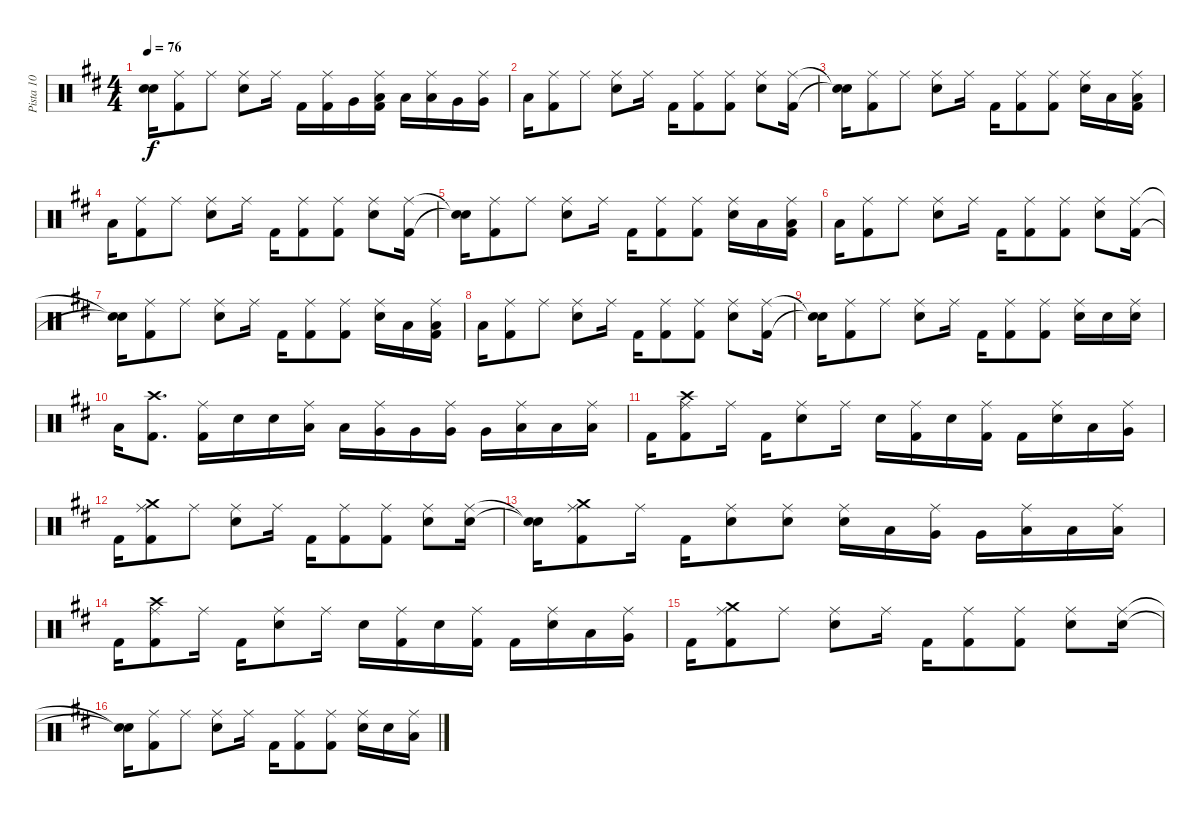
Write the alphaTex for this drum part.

\track ("Pista 10" "Pista 10") {instrument percussion}
\staff {score}
\articulation defaults
\ts (4 4)
\tempo 76
\clef neutral
\ks d
("Snare (hit)"{t} "Snare (hit)"{t}).16{dy f} ("Kick (hit) 2" "Ride (middle)").8 "Ride (middle)".8 ("Snare (hit) 2" "Ride (middle)").8 "Ride (middle)".16 "Kick (hit) 2".16 ("Kick (hit) 2" "Ride (middle)").16 "Very Low Tom (hit)".16 ("Kick (hit) 2" "Ride (middle)" "Low Tom (hit)").16 "Low Tom (hit)".16 ("Ride (middle)" "Low Tom (hit)").16 "Very Low Tom (hit)".16 ("Very Low Tom (hit)" "Ride (middle)").16 |
"Low Floor Tom (hit)".16 ("Kick (hit) 2" "Ride (middle)").8 "Ride (middle)".8 ("Snare (hit) 2" "Ride (middle)").8 "Ride (middle)".16 "Kick (hit) 2".16 ("Kick (hit) 2" "Ride (middle)").8 ("Kick (hit) 2" "Ride (middle)").8 ("Snare (hit) 2" "Ride (middle)").8 ("Kick (hit) 2" "Ride (middle)").16 |
("Snare (hit)"{t} "Snare (hit)"{t}).16 ("Kick (hit) 2" "Ride (middle)").8 "Ride (middle)".8 ("Snare (hit) 2" "Ride (middle)").8 "Ride (middle)".16 "Kick (hit) 2".16 ("Kick (hit) 2" "Ride (middle)").8 ("Kick (hit) 2" "Ride (middle)").8 ("Snare (hit) 2" "Ride (middle)").16 "Low Tom (hit)".16 ("Kick (hit) 2" "Ride (middle)" "Low Tom (hit)").16 |
"Low Floor Tom (hit)".16 ("Kick (hit) 2" "Ride (middle)").8 "Ride (middle)".8 ("Snare (hit) 2" "Ride (middle)").8 "Ride (middle)".16 "Kick (hit) 2".16 ("Kick (hit) 2" "Ride (middle)").8 ("Kick (hit) 2" "Ride (middle)").8 ("Snare (hit) 2" "Ride (middle)").8 ("Kick (hit) 2" "Ride (middle)").16 |
("Snare (hit)"{t} "Snare (hit)"{t}).16 ("Kick (hit) 2" "Ride (middle)").8 "Ride (middle)".8 ("Snare (hit) 2" "Ride (middle)").8 "Ride (middle)".16 "Kick (hit) 2".16 ("Kick (hit) 2" "Ride (middle)").8 ("Kick (hit) 2" "Ride (middle)").8 ("Snare (hit) 2" "Ride (middle)").16 "Low Tom (hit)".16 ("Kick (hit) 2" "Ride (middle)" "Low Tom (hit)").16 |
"Low Floor Tom (hit)".16 ("Kick (hit) 2" "Ride (middle)").8 "Ride (middle)".8 ("Snare (hit) 2" "Ride (middle)").8 "Ride (middle)".16 "Kick (hit) 2".16 ("Kick (hit) 2" "Ride (middle)").8 ("Kick (hit) 2" "Ride (middle)").8 ("Snare (hit) 2" "Ride (middle)").8 ("Kick (hit) 2" "Ride (middle)").16 |
("Snare (hit)"{t} "Snare (hit)"{t}).16 ("Kick (hit) 2" "Ride (middle)").8 "Ride (middle)".8 ("Snare (hit) 2" "Ride (middle)").8 "Ride (middle)".16 "Kick (hit) 2".16 ("Kick (hit) 2" "Ride (middle)").8 ("Kick (hit) 2" "Ride (middle)").8 ("Snare (hit) 2" "Ride (middle)").16 "Low Tom (hit)".16 ("Kick (hit) 2" "Ride (middle)" "Low Tom (hit)").16 |
"Low Floor Tom (hit)".16 ("Kick (hit) 2" "Ride (middle)").8 "Ride (middle)".8 ("Snare (hit) 2" "Ride (middle)").8 "Ride (middle)".16 "Kick (hit) 2".16 ("Kick (hit) 2" "Ride (middle)").8 ("Kick (hit) 2" "Ride (middle)").8 ("Snare (hit) 2" "Ride (middle)").8 ("Kick (hit) 2" "Ride (middle)").16 |
("Snare (hit)"{t} "Snare (hit)"{t}).16 ("Kick (hit) 2" "Ride (middle)").8 "Ride (middle)".8 ("Snare (hit) 2" "Ride (middle)").8 "Ride (middle)".16 "Kick (hit) 2".16 ("Kick (hit) 2" "Ride (middle)").8 ("Kick (hit) 2" "Ride (middle)").8 ("Snare (hit) 2" "Ride (middle)").16 "Snare (hit) 2".16 ("Snare (hit) 2" "Ride (middle)").16 |
"Low Tom (hit)".16 ("Kick (hit) 2" "Crash high (hit)").8{d} ("Kick (hit) 2" "Ride (middle)").16 "Snare (hit) 2".16 "Snare (hit) 2".16 ("Ride (middle)" "Low Tom (hit)").16 "Low Tom (hit)".16 ("Very Low Tom (hit)" "Ride (middle)").16 "Very Low Tom (hit)".16 ("Very Low Tom (hit)" "Ride (middle)").16 "Very Low Tom (hit)".16 ("Ride (middle)" "Low Floor Tom (hit)").16 "Low Floor Tom (hit)".16 ("Ride (middle)" "Low Floor Tom (hit)").16 |
"Kick (hit) 2".16 ("Kick (hit) 2" "Crash high (hit)" "Ride (middle)").8 "Ride (middle)".16 "Kick (hit) 2".16 ("Snare (hit) 2" "Ride (middle)").8 "Ride (middle)".16 "Snare (hit) 2".16 ("Kick (hit) 2" "Ride (middle)").16 "Snare (hit) 2".16 ("Kick (hit) 2" "Ride (middle)").16 "Kick (hit) 2".16 ("Snare (hit) 2" "Ride (middle)").16 "Low Tom (hit)".16 ("Very Low Tom (hit)" "Ride (middle)").16 |
"Kick (hit) 2".16 ("Kick (hit) 2" "Crash medium (hit)" "Ride (middle)").8 "Ride (middle)".8 ("Snare (hit) 2" "Ride (middle)").8 "Ride (middle)".16 "Kick (hit) 2".16 ("Kick (hit) 2" "Ride (middle)").8 ("Kick (hit) 2" "Ride (middle)").8 ("Snare (hit) 2" "Ride (middle)").8 ("Snare (hit) 2" "Ride (middle)").16 |
("Snare (hit)"{t} "Snare (hit)"{t}).16 ("Kick (hit) 2" "Crash medium (hit)" "Ride (middle)").8 "Ride (middle)".16 "Kick (hit) 2".16 ("Snare (hit) 2" "Ride (middle)").8 ("Snare (hit) 2" "Ride (middle)").8 ("Snare (hit) 2" "Ride (middle)").16 "Low Tom (hit)".16 ("Very Low Tom (hit)" "Ride (middle)").16 "Very Low Tom (hit)".16 ("Ride (middle)" "Low Floor Tom (hit)").16 "Low Floor Tom (hit)".16 ("Ride (middle)" "Low Floor Tom (hit)").16 |
"Kick (hit) 2".16 ("Kick (hit) 2" "Crash high (hit)" "Ride (middle)").8 "Ride (middle)".16 "Kick (hit) 2".16 ("Snare (hit) 2" "Ride (middle)").8 "Ride (middle)".16 "Snare (hit) 2".16 ("Kick (hit) 2" "Ride (middle)").16 "Snare (hit) 2".16 ("Kick (hit) 2" "Ride (middle)").16 "Kick (hit) 2".16 ("Snare (hit) 2" "Ride (middle)").16 "Low Tom (hit)".16 ("Very Low Tom (hit)" "Ride (middle)").16 |
"Kick (hit) 2".16 ("Kick (hit) 2" "Crash medium (hit)" "Ride (middle)").8 "Ride (middle)".8 ("Snare (hit) 2" "Ride (middle)").8 "Ride (middle)".16 "Kick (hit) 2".16 ("Kick (hit) 2" "Ride (middle)").8 ("Kick (hit) 2" "Ride (middle)").8 ("Snare (hit) 2" "Ride (middle)").8 ("Snare (hit) 2" "Ride (middle)").16 |
("Snare (hit)"{t} "Snare (hit)"{t}).16 ("Kick (hit) 2" "Ride (middle)").8 "Ride (middle)".8 ("Snare (hit) 2" "Ride (middle)").8 "Ride (middle)".16 "Kick (hit) 2".16 ("Kick (hit) 2" "Ride (middle)").8 ("Kick (hit) 2" "Ride (middle)").8 ("Snare (hit) 2" "Ride (middle)").16 "Snare (hit) 2".16 ("Ride (middle)" "Low Tom (hit)").16
